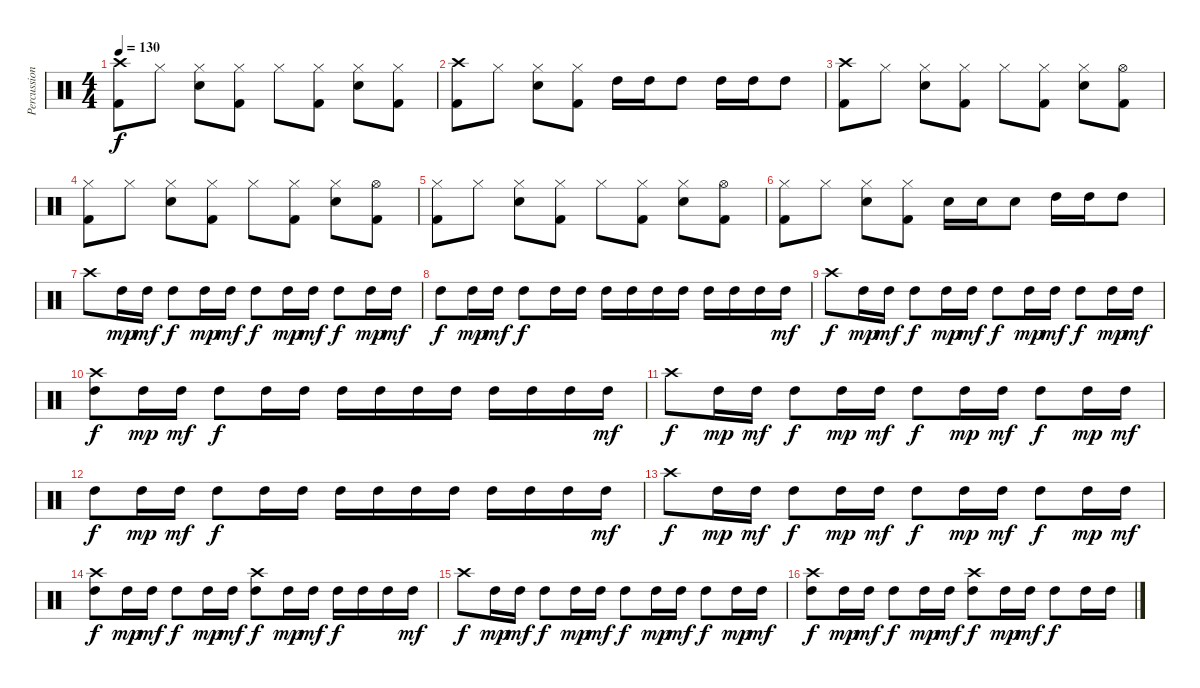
\track ("Percussion" "Percussion") {instrument percussion}
\staff {score}
\articulation defaults
\ts (4 4)
\tempo 130
\clef neutral
\ks c
("Crash high (hit)" "Kick (hit) 2").8{dy f} "Hi-Hat (closed)".8 ("Hi-Hat (closed)" "Snare (hit) 2").8 ("Hi-Hat (closed)" "Kick (hit) 2").8 "Hi-Hat (closed)".8 ("Hi-Hat (closed)" "Kick (hit) 2").8 ("Hi-Hat (closed)" "Snare (hit) 2").8 ("Hi-Hat (closed)" "Kick (hit) 2").8 |
("Crash high (hit)" "Kick (hit) 2").8 "Hi-Hat (closed)".8 ("Hi-Hat (closed)" "Snare (hit) 2").8 ("Hi-Hat (closed)" "Kick (hit) 2").8 "High Tom (hit)".16 "High Tom (hit)".16 "High Tom (hit)".8 "High Tom (hit)".16 "High Tom (hit)".16 "High Tom (hit)".8 |
("Crash high (hit)" "Kick (hit) 2").8 "Hi-Hat (closed)".8 ("Hi-Hat (closed)" "Snare (hit) 2").8 ("Hi-Hat (closed)" "Kick (hit) 2").8 "Hi-Hat (closed)".8 ("Hi-Hat (closed)" "Kick (hit) 2").8 ("Hi-Hat (closed)" "Snare (hit) 2").8 ("Hi-Hat (open)" "Kick (hit) 2").8 |
("Hi-Hat (closed)" "Kick (hit) 2").8 "Hi-Hat (closed)".8 ("Hi-Hat (closed)" "Snare (hit) 2").8 ("Hi-Hat (closed)" "Kick (hit) 2").8 "Hi-Hat (closed)".8 ("Hi-Hat (closed)" "Kick (hit) 2").8 ("Hi-Hat (closed)" "Snare (hit) 2").8 ("Hi-Hat (open)" "Kick (hit) 2").8 |
("Hi-Hat (closed)" "Kick (hit) 2").8 "Hi-Hat (closed)".8 ("Hi-Hat (closed)" "Snare (hit) 2").8 ("Hi-Hat (closed)" "Kick (hit) 2").8 "Hi-Hat (closed)".8 ("Hi-Hat (closed)" "Kick (hit) 2").8 ("Hi-Hat (closed)" "Snare (hit) 2").8 ("Hi-Hat (open)" "Kick (hit) 2").8 |
("Hi-Hat (closed)" "Kick (hit) 2").8 "Hi-Hat (closed)".8 ("Hi-Hat (closed)" "Snare (hit) 2").8 ("Hi-Hat (closed)" "Kick (hit) 2").8 "Snare (hit) 2".16 "Snare (hit) 2".16 "Snare (hit) 2".8 "High Tom (hit)".16 "High Tom (hit)".16 "High Tom (hit)".8 |
"Crash high (hit)".8 "High Tom (hit)".16{dy mp} "High Tom (hit)".16{dy mf} "High Tom (hit)".8{dy f} "High Tom (hit)".16{dy mp} "High Tom (hit)".16{dy mf} "High Tom (hit)".8{dy f} "High Tom (hit)".16{dy mp} "High Tom (hit)".16{dy mf} "High Tom (hit)".8{dy f} "High Tom (hit)".16{dy mp} "High Tom (hit)".16{dy mf} |
"High Tom (hit)".8{dy f} "High Tom (hit)".16{dy mp} "High Tom (hit)".16{dy mf} "High Tom (hit)".8{dy f} "High Tom (hit)".16 "High Tom (hit)".16 "High Tom (hit)".16 "High Tom (hit)".16 "High Tom (hit)".16 "High Tom (hit)".16 "High Tom (hit)".16 "High Tom (hit)".16 "High Tom (hit)".16 "High Tom (hit)".16{dy mf} |
"Crash high (hit)".8{dy f} "High Tom (hit)".16{dy mp} "High Tom (hit)".16{dy mf} "High Tom (hit)".8{dy f} "High Tom (hit)".16{dy mp} "High Tom (hit)".16{dy mf} "High Tom (hit)".8{dy f} "High Tom (hit)".16{dy mp} "High Tom (hit)".16{dy mf} "High Tom (hit)".8{dy f} "High Tom (hit)".16{dy mp} "High Tom (hit)".16{dy mf} |
("Crash high (hit)" "High Tom (hit)").8{dy f} "High Tom (hit)".16{dy mp} "High Tom (hit)".16{dy mf} "High Tom (hit)".8{dy f} "High Tom (hit)".16 "High Tom (hit)".16 "High Tom (hit)".16 "High Tom (hit)".16 "High Tom (hit)".16 "High Tom (hit)".16 "High Tom (hit)".16 "High Tom (hit)".16 "High Tom (hit)".16 "High Tom (hit)".16{dy mf} |
"Crash high (hit)".8{dy f} "High Tom (hit)".16{dy mp} "High Tom (hit)".16{dy mf} "High Tom (hit)".8{dy f} "High Tom (hit)".16{dy mp} "High Tom (hit)".16{dy mf} "High Tom (hit)".8{dy f} "High Tom (hit)".16{dy mp} "High Tom (hit)".16{dy mf} "High Tom (hit)".8{dy f} "High Tom (hit)".16{dy mp} "High Tom (hit)".16{dy mf} |
"High Tom (hit)".8{dy f} "High Tom (hit)".16{dy mp} "High Tom (hit)".16{dy mf} "High Tom (hit)".8{dy f} "High Tom (hit)".16 "High Tom (hit)".16 "High Tom (hit)".16 "High Tom (hit)".16 "High Tom (hit)".16 "High Tom (hit)".16 "High Tom (hit)".16 "High Tom (hit)".16 "High Tom (hit)".16 "High Tom (hit)".16{dy mf} |
"Crash high (hit)".8{dy f} "High Tom (hit)".16{dy mp} "High Tom (hit)".16{dy mf} "High Tom (hit)".8{dy f} "High Tom (hit)".16{dy mp} "High Tom (hit)".16{dy mf} "High Tom (hit)".8{dy f} "High Tom (hit)".16{dy mp} "High Tom (hit)".16{dy mf} "High Tom (hit)".8{dy f} "High Tom (hit)".16{dy mp} "High Tom (hit)".16{dy mf} |
("Crash high (hit)" "High Tom (hit)").8{dy f} "High Tom (hit)".16{dy mp} "High Tom (hit)".16{dy mf} "High Tom (hit)".8{dy f} "High Tom (hit)".16{dy mp} "High Tom (hit)".16{dy mf} ("Crash high (hit)" "High Tom (hit)").8{dy f} "High Tom (hit)".16{dy mp} "High Tom (hit)".16{dy mf} "High Tom (hit)".16{dy f} "High Tom (hit)".16 "High Tom (hit)".16 "High Tom (hit)".16{dy mf} |
"Crash high (hit)".8{dy f} "High Tom (hit)".16{dy mp} "High Tom (hit)".16{dy mf} "High Tom (hit)".8{dy f} "High Tom (hit)".16{dy mp} "High Tom (hit)".16{dy mf} "High Tom (hit)".8{dy f} "High Tom (hit)".16{dy mp} "High Tom (hit)".16{dy mf} "High Tom (hit)".8{dy f} "High Tom (hit)".16{dy mp} "High Tom (hit)".16{dy mf} |
("Crash high (hit)" "High Tom (hit)").8{dy f} "High Tom (hit)".16{dy mp} "High Tom (hit)".16{dy mf} "High Tom (hit)".8{dy f} "High Tom (hit)".16{dy mp} "High Tom (hit)".16{dy mf} ("Crash high (hit)" "High Tom (hit)").8{dy f} "High Tom (hit)".16{dy mp} "High Tom (hit)".16{dy mf} "High Tom (hit)".8{dy f} "High Tom (hit)".16 "High Tom (hit)".16
